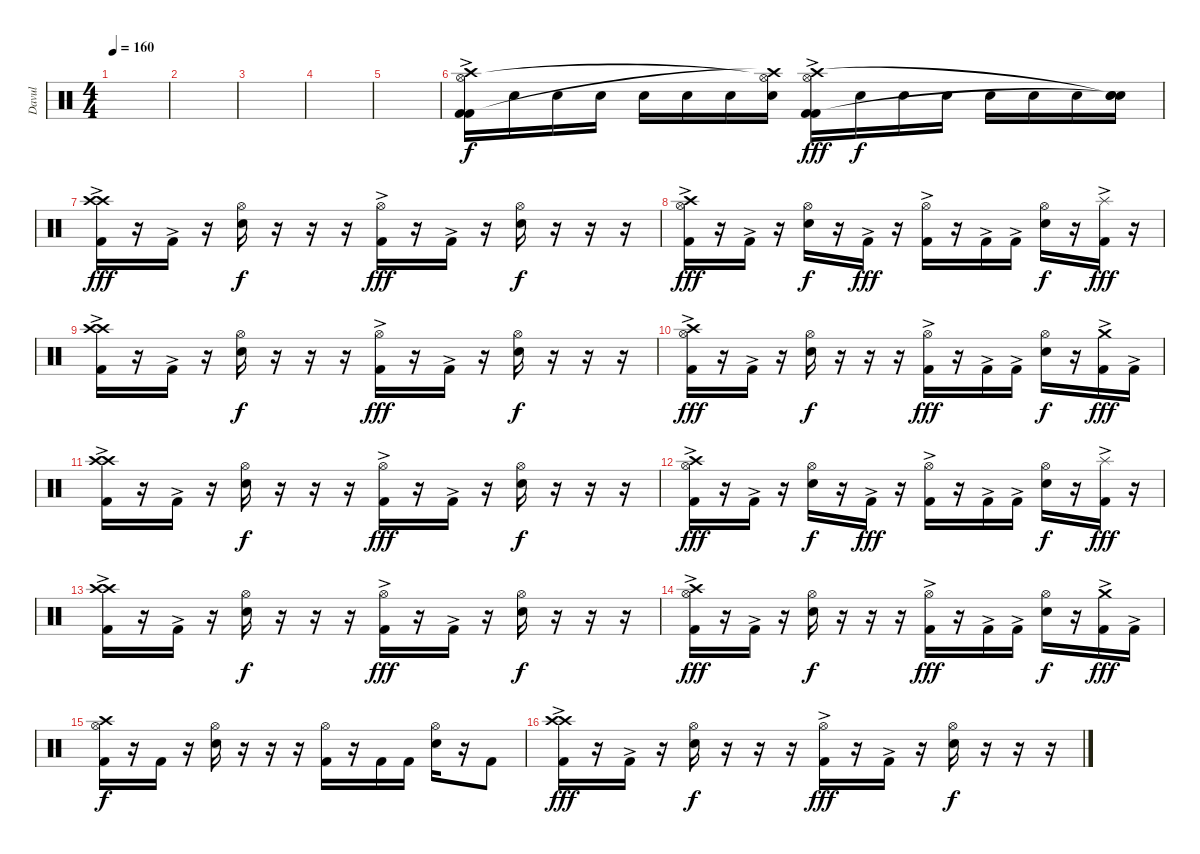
\track ("Davul" "Davul") {instrument percussion}
\staff {score}
\articulation defaults
\ts (4 4)
\tempo 160
\clef neutral
\ks c
|
|
|
|
|
("Kick (hit) 2"{ac} "Kick (hit) 2"{ac} "Hi-Hat (open)"{ac} "Crash high (hit)"{ac}).16 "Electric Snare (hit)".16{dy f} "Electric Snare (hit)".16 "Electric Snare (hit)".16 "Electric Snare (hit)".16 "Electric Snare (hit)".16 "Electric Snare (hit)".16 ("Electric Snare (hit)" "Crash high (hit)"{t} "Hi-Hat (open)"{t}).16 ("Kick (hit) 2"{ac} "Kick (hit) 2"{ac} "Crash high (hit)"{ac} "Hi-Hat (open)"{ac}).16{dy fff} "Electric Snare (hit)".16{dy f} "Electric Snare (hit)".16 "Electric Snare (hit)".16 "Electric Snare (hit)".16 "Electric Snare (hit)".16 "Electric Snare (hit)".16 ("Electric Snare (hit)" "Snare (hit)"{t} "Snare (hit)"{t}).16 |
("Crash high (hit)" "Crash high (hit)" "Kick (hit) 2"{ac}).16{dy fff} r.16 "Kick (hit) 2"{ac}.16 r.16 ("Hi-Hat (open)" "Electric Snare (hit)").16{dy f} r.16 r.16 r.16 ("Hi-Hat (open)" "Kick (hit) 2"{ac}).16{dy fff} r.16 "Kick (hit) 2"{ac}.16 r.16 ("Hi-Hat (open)" "Electric Snare (hit)").16{dy f} r.16 r.16 r.16 |
("Crash high (hit)" "Hi-Hat (open)" "Kick (hit) 2"{ac}).16{dy fff} r.16 "Kick (hit) 2"{ac}.16 r.16 ("Hi-Hat (open)" "Electric Snare (hit)").16{dy f} r.16 "Kick (hit) 2"{ac}.16{dy fff} r.16 ("Hi-Hat (open)" "Kick (hit) 2"{ac}).16 r.16 "Kick (hit) 2"{ac}.16 "Kick (hit) 2"{ac}.16 ("Hi-Hat (open)" "Electric Snare (hit)").16{dy f} r.16 ("Splash (hit)" "Kick (hit) 2"{ac}).16{dy fff} r.16 |
("Crash high (hit)" "Crash high (hit)" "Kick (hit) 2"{ac}).16 r.16 "Kick (hit) 2"{ac}.16 r.16 ("Hi-Hat (open)" "Electric Snare (hit)").16{dy f} r.16 r.16 r.16 ("Hi-Hat (open)" "Kick (hit) 2"{ac}).16{dy fff} r.16 "Kick (hit) 2"{ac}.16 r.16 ("Hi-Hat (open)" "Electric Snare (hit)").16{dy f} r.16 r.16 r.16 |
("Crash high (hit)" "Hi-Hat (open)" "Kick (hit) 2"{ac}).16{dy fff} r.16 "Kick (hit) 2"{ac}.16 r.16 ("Hi-Hat (open)" "Electric Snare (hit)").16{dy f} r.16 r.16 r.16 ("Hi-Hat (open)" "Kick (hit) 2"{ac}).16{dy fff} r.16 "Kick (hit) 2"{ac}.16 "Kick (hit) 2"{ac}.16 ("Hi-Hat (open)" "Electric Snare (hit)").16{dy f} r.16 ("Crash medium (hit)" "Kick (hit) 2"{ac}).16{dy fff} "Kick (hit) 2"{ac}.16 |
("Crash high (hit)" "Crash high (hit)" "Kick (hit) 2"{ac}).16 r.16 "Kick (hit) 2"{ac}.16 r.16 ("Hi-Hat (open)" "Electric Snare (hit)").16{dy f} r.16 r.16 r.16 ("Hi-Hat (open)" "Kick (hit) 2"{ac}).16{dy fff} r.16 "Kick (hit) 2"{ac}.16 r.16 ("Hi-Hat (open)" "Electric Snare (hit)").16{dy f} r.16 r.16 r.16 |
("Crash high (hit)" "Hi-Hat (open)" "Kick (hit) 2"{ac}).16{dy fff} r.16 "Kick (hit) 2"{ac}.16 r.16 ("Hi-Hat (open)" "Electric Snare (hit)").16{dy f} r.16 "Kick (hit) 2"{ac}.16{dy fff} r.16 ("Hi-Hat (open)" "Kick (hit) 2"{ac}).16 r.16 "Kick (hit) 2"{ac}.16 "Kick (hit) 2"{ac}.16 ("Hi-Hat (open)" "Electric Snare (hit)").16{dy f} r.16 ("Splash (hit)" "Kick (hit) 2"{ac}).16{dy fff} r.16 |
("Crash high (hit)" "Crash high (hit)" "Kick (hit) 2"{ac}).16 r.16 "Kick (hit) 2"{ac}.16 r.16 ("Hi-Hat (open)" "Electric Snare (hit)").16{dy f} r.16 r.16 r.16 ("Hi-Hat (open)" "Kick (hit) 2"{ac}).16{dy fff} r.16 "Kick (hit) 2"{ac}.16 r.16 ("Hi-Hat (open)" "Electric Snare (hit)").16{dy f} r.16 r.16 r.16 |
("Crash high (hit)" "Hi-Hat (open)" "Kick (hit) 2"{ac}).16{dy fff} r.16 "Kick (hit) 2"{ac}.16 r.16 ("Hi-Hat (open)" "Electric Snare (hit)").16{dy f} r.16 r.16 r.16 ("Hi-Hat (open)" "Kick (hit) 2"{ac}).16{dy fff} r.16 "Kick (hit) 2"{ac}.16 "Kick (hit) 2"{ac}.16 ("Hi-Hat (open)" "Electric Snare (hit)").16{dy f} r.16 ("Crash medium (hit)" "Kick (hit) 2"{ac}).16{dy fff} "Kick (hit) 2"{ac}.16 |
("Hi-Hat (open)" "Crash high (hit)" "Kick (hit) 2").16{dy f} r.16 "Kick (hit) 2".16 r.16 ("Hi-Hat (open)" "Electric Snare (hit)").16 r.16 r.16 r.16 ("Hi-Hat (open)" "Kick (hit) 2").16 r.16 "Kick (hit) 2".16 "Kick (hit) 2".16 ("Hi-Hat (open)" "Electric Snare (hit)").16 r.16 "Kick (hit) 2".8 |
("Crash high (hit)" "Crash high (hit)" "Kick (hit) 2"{ac}).16{dy fff} r.16 "Kick (hit) 2"{ac}.16 r.16 ("Hi-Hat (open)" "Electric Snare (hit)").16{dy f} r.16 r.16 r.16 ("Hi-Hat (open)" "Kick (hit) 2"{ac}).16{dy fff} r.16 "Kick (hit) 2"{ac}.16 r.16 ("Hi-Hat (open)" "Electric Snare (hit)").16{dy f} r.16 r.16 r.16
